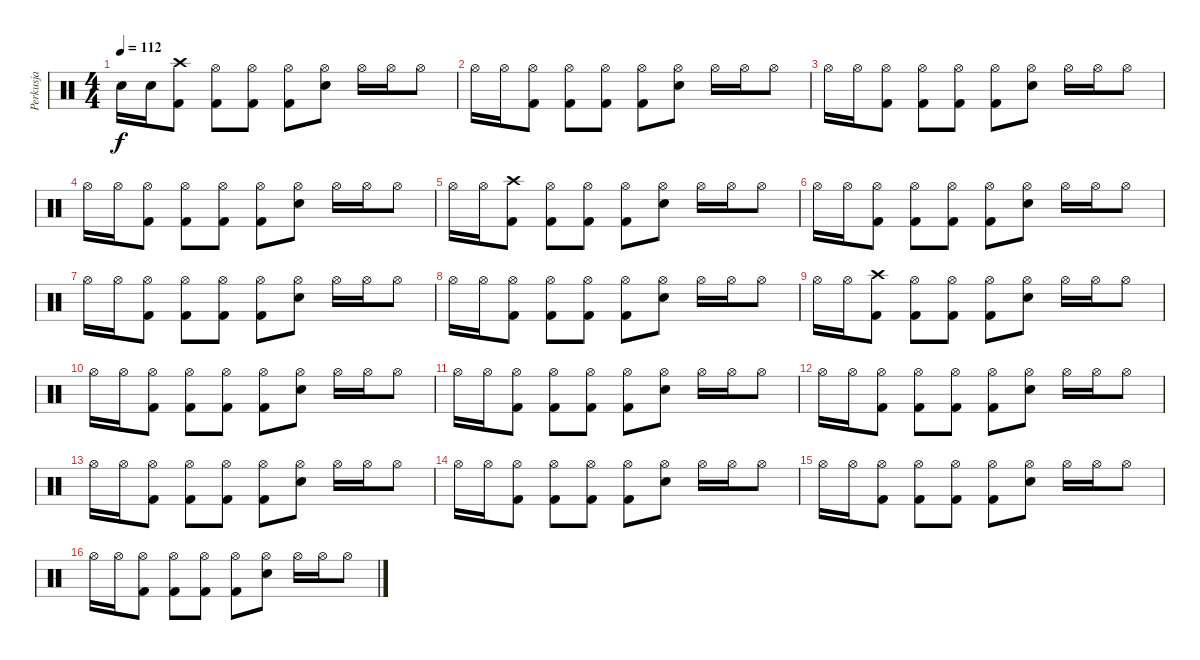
\track ("Perkusja" "Perkusja") {instrument percussion}
\staff {score}
\articulation defaults
\ts (4 4)
\tempo 112
\clef neutral
\ks c "Snare (hit) 2".16{dy f} "Snare (hit) 2".16
("Kick (hit) 2" "Crash high (hit)").8 ("Hi-Hat (open)" "Kick (hit) 2").8 ("Kick (hit) 2" "Hi-Hat (open)").8 ("Hi-Hat (open)" "Kick (hit) 2").8 ("Snare (hit) 2" "Hi-Hat (open)").8 "Hi-Hat (open)".16 "Hi-Hat (open)".16 "Hi-Hat (open)".8 |
"Hi-Hat (open)".16 "Hi-Hat (open)".16 ("Hi-Hat (open)" "Kick (hit) 2").8 ("Hi-Hat (open)" "Kick (hit) 2").8 ("Kick (hit) 2" "Hi-Hat (open)").8 ("Hi-Hat (open)" "Kick (hit) 2").8 ("Snare (hit) 2" "Hi-Hat (open)").8 "Hi-Hat (open)".16 "Hi-Hat (open)".16 "Hi-Hat (open)".8 |
"Hi-Hat (open)".16 "Hi-Hat (open)".16 ("Hi-Hat (open)" "Kick (hit) 2").8 ("Hi-Hat (open)" "Kick (hit) 2").8 ("Kick (hit) 2" "Hi-Hat (open)").8 ("Hi-Hat (open)" "Kick (hit) 2").8 ("Snare (hit) 2" "Hi-Hat (open)").8 "Hi-Hat (open)".16 "Hi-Hat (open)".16 "Hi-Hat (open)".8 |
"Hi-Hat (open)".16 "Hi-Hat (open)".16 ("Hi-Hat (open)" "Kick (hit) 2").8 ("Hi-Hat (open)" "Kick (hit) 2").8 ("Kick (hit) 2" "Hi-Hat (open)").8 ("Hi-Hat (open)" "Kick (hit) 2").8 ("Snare (hit) 2" "Hi-Hat (open)").8 "Hi-Hat (open)".16 "Hi-Hat (open)".16 "Hi-Hat (open)".8 |
"Hi-Hat (open)".16 "Hi-Hat (open)".16 ("Kick (hit) 2" "Crash high (hit)").8 ("Hi-Hat (open)" "Kick (hit) 2").8 ("Kick (hit) 2" "Hi-Hat (open)").8 ("Hi-Hat (open)" "Kick (hit) 2").8 ("Snare (hit) 2" "Hi-Hat (open)").8 "Hi-Hat (open)".16 "Hi-Hat (open)".16 "Hi-Hat (open)".8 |
"Hi-Hat (open)".16 "Hi-Hat (open)".16 ("Hi-Hat (open)" "Kick (hit) 2").8 ("Hi-Hat (open)" "Kick (hit) 2").8 ("Kick (hit) 2" "Hi-Hat (open)").8 ("Hi-Hat (open)" "Kick (hit) 2").8 ("Snare (hit) 2" "Hi-Hat (open)").8 "Hi-Hat (open)".16 "Hi-Hat (open)".16 "Hi-Hat (open)".8 |
"Hi-Hat (open)".16 "Hi-Hat (open)".16 ("Hi-Hat (open)" "Kick (hit) 2").8 ("Hi-Hat (open)" "Kick (hit) 2").8 ("Kick (hit) 2" "Hi-Hat (open)").8 ("Hi-Hat (open)" "Kick (hit) 2").8 ("Snare (hit) 2" "Hi-Hat (open)").8 "Hi-Hat (open)".16 "Hi-Hat (open)".16 "Hi-Hat (open)".8 |
"Hi-Hat (open)".16 "Hi-Hat (open)".16 ("Hi-Hat (open)" "Kick (hit) 2").8 ("Hi-Hat (open)" "Kick (hit) 2").8 ("Kick (hit) 2" "Hi-Hat (open)").8 ("Hi-Hat (open)" "Kick (hit) 2").8 ("Snare (hit) 2" "Hi-Hat (open)").8 "Hi-Hat (open)".16 "Hi-Hat (open)".16 "Hi-Hat (open)".8 |
"Hi-Hat (open)".16 "Hi-Hat (open)".16 ("Crash high (hit)" "Kick (hit) 2").8 ("Hi-Hat (open)" "Kick (hit) 2").8 ("Kick (hit) 2" "Hi-Hat (open)").8 ("Hi-Hat (open)" "Kick (hit) 2").8 ("Snare (hit) 2" "Hi-Hat (open)").8 "Hi-Hat (open)".16 "Hi-Hat (open)".16 "Hi-Hat (open)".8 |
"Hi-Hat (open)".16 "Hi-Hat (open)".16 ("Hi-Hat (open)" "Kick (hit) 2").8 ("Hi-Hat (open)" "Kick (hit) 2").8 ("Kick (hit) 2" "Hi-Hat (open)").8 ("Hi-Hat (open)" "Kick (hit) 2").8 ("Snare (hit) 2" "Hi-Hat (open)").8 "Hi-Hat (open)".16 "Hi-Hat (open)".16 "Hi-Hat (open)".8 |
"Hi-Hat (open)".16 "Hi-Hat (open)".16 ("Hi-Hat (open)" "Kick (hit) 2").8 ("Hi-Hat (open)" "Kick (hit) 2").8 ("Kick (hit) 2" "Hi-Hat (open)").8 ("Hi-Hat (open)" "Kick (hit) 2").8 ("Snare (hit) 2" "Hi-Hat (open)").8 "Hi-Hat (open)".16 "Hi-Hat (open)".16 "Hi-Hat (open)".8 |
"Hi-Hat (open)".16 "Hi-Hat (open)".16 ("Hi-Hat (open)" "Kick (hit) 2").8 ("Hi-Hat (open)" "Kick (hit) 2").8 ("Kick (hit) 2" "Hi-Hat (open)").8 ("Hi-Hat (open)" "Kick (hit) 2").8 ("Snare (hit) 2" "Hi-Hat (open)").8 "Hi-Hat (open)".16 "Hi-Hat (open)".16 "Hi-Hat (open)".8 |
"Hi-Hat (open)".16 "Hi-Hat (open)".16 ("Hi-Hat (open)" "Kick (hit) 2").8 ("Hi-Hat (open)" "Kick (hit) 2").8 ("Kick (hit) 2" "Hi-Hat (open)").8 ("Hi-Hat (open)" "Kick (hit) 2").8 ("Snare (hit) 2" "Hi-Hat (open)").8 "Hi-Hat (open)".16 "Hi-Hat (open)".16 "Hi-Hat (open)".8 |
"Hi-Hat (open)".16 "Hi-Hat (open)".16 ("Hi-Hat (open)" "Kick (hit) 2").8 ("Hi-Hat (open)" "Kick (hit) 2").8 ("Kick (hit) 2" "Hi-Hat (open)").8 ("Hi-Hat (open)" "Kick (hit) 2").8 ("Snare (hit) 2" "Hi-Hat (open)").8 "Hi-Hat (open)".16 "Hi-Hat (open)".16 "Hi-Hat (open)".8 |
"Hi-Hat (open)".16 "Hi-Hat (open)".16 ("Hi-Hat (open)" "Kick (hit) 2").8 ("Hi-Hat (open)" "Kick (hit) 2").8 ("Kick (hit) 2" "Hi-Hat (open)").8 ("Hi-Hat (open)" "Kick (hit) 2").8 ("Snare (hit) 2" "Hi-Hat (open)").8 "Hi-Hat (open)".16 "Hi-Hat (open)".16 "Hi-Hat (open)".8 |
"Hi-Hat (open)".16 "Hi-Hat (open)".16 ("Hi-Hat (open)" "Kick (hit) 2").8 ("Hi-Hat (open)" "Kick (hit) 2").8 ("Kick (hit) 2" "Hi-Hat (open)").8 ("Hi-Hat (open)" "Kick (hit) 2").8 ("Snare (hit) 2" "Hi-Hat (open)").8 "Hi-Hat (open)".16 "Hi-Hat (open)".16 "Hi-Hat (open)".8
